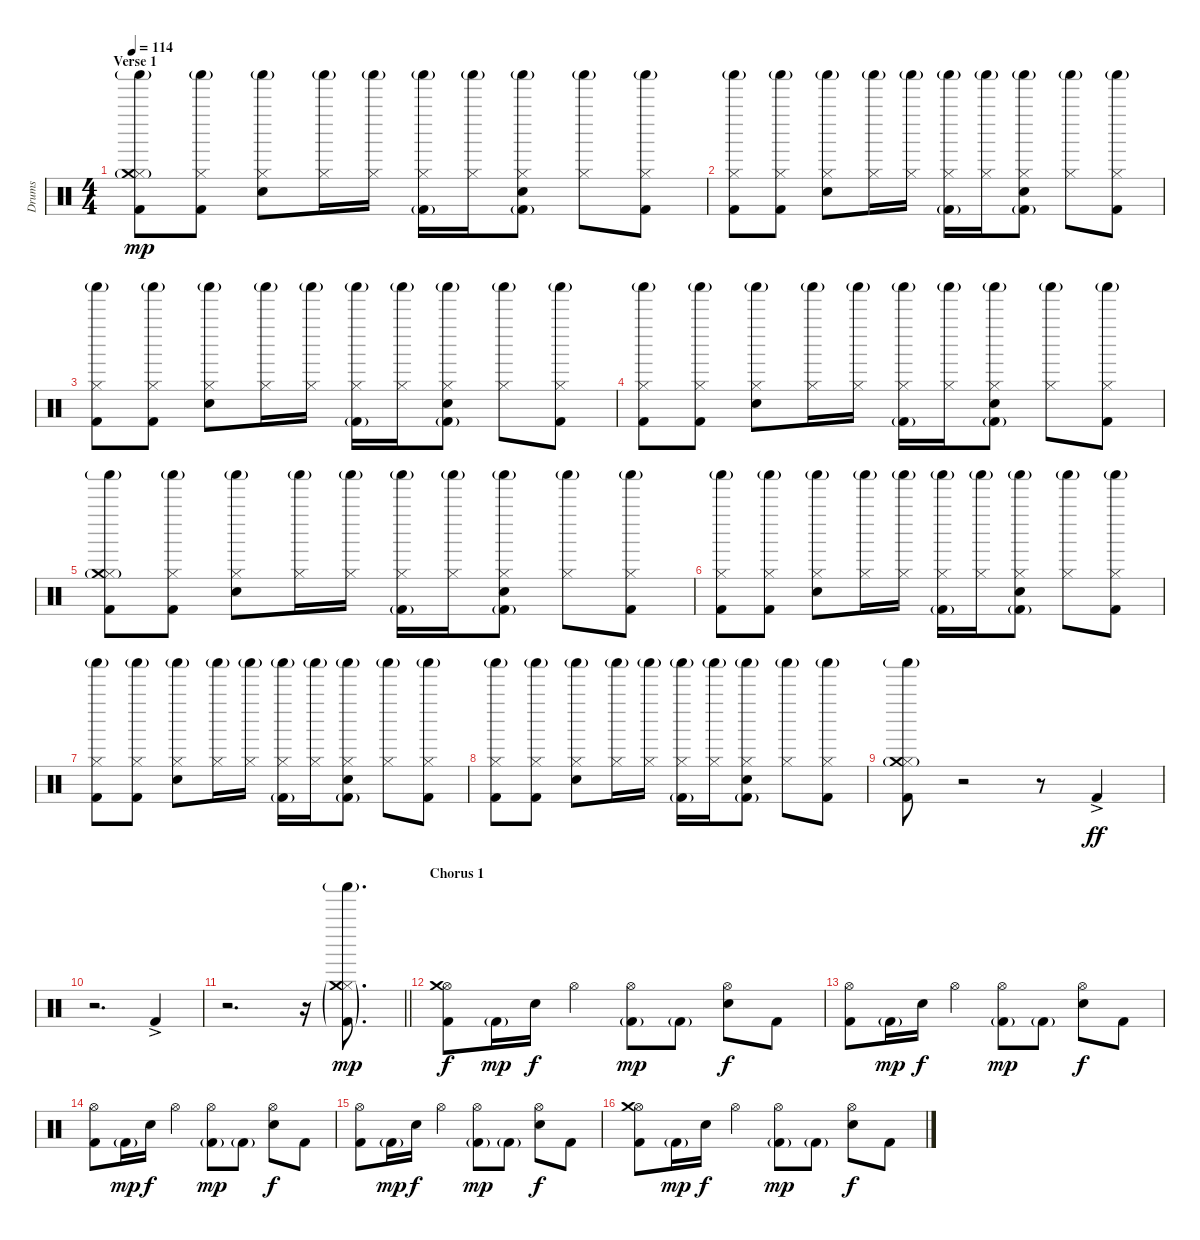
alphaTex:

\track ("Drums" "Drums") {instrument percussion}
\staff {score}
\articulation defaults
\ts (4 4)
\section ("" "Verse 1")
\tempo 114
\clef neutral
\ks c
("Hi-Hat (closed)" "Shaker (hit)"{g} "Crash medium (hit)"{g} "Kick (hit) 2").8{dy mp} ("Hi-Hat (closed)" "Shaker (hit)"{g} "Kick (hit) 2").8 ("Hi-Hat (closed)" "Shaker (hit)"{g} "Electric Snare (hit)").8 ("Hi-Hat (closed)" "Shaker (hit)"{g}).16 ("Hi-Hat (closed)" "Shaker (hit)"{g}).16 ("Hi-Hat (closed)" "Shaker (hit)"{g} "Kick (hit) 2"{g}).16 ("Hi-Hat (closed)" "Shaker (hit)"{g}).16 ("Hi-Hat (closed)" "Shaker (hit)"{g} "Electric Snare (hit)" "Kick (hit) 2"{g}).8 ("Hi-Hat (closed)" "Shaker (hit)"{g}).8 ("Hi-Hat (closed)" "Shaker (hit)"{g} "Kick (hit) 2").8 |
("Hi-Hat (closed)" "Shaker (hit)"{g} "Kick (hit) 2").8 ("Hi-Hat (closed)" "Shaker (hit)"{g} "Kick (hit) 2").8 ("Hi-Hat (closed)" "Shaker (hit)"{g} "Electric Snare (hit)").8 ("Hi-Hat (closed)" "Shaker (hit)"{g}).16 ("Hi-Hat (closed)" "Shaker (hit)"{g}).16 ("Hi-Hat (closed)" "Shaker (hit)"{g} "Kick (hit) 2"{g}).16 ("Hi-Hat (closed)" "Shaker (hit)"{g}).16 ("Hi-Hat (closed)" "Shaker (hit)"{g} "Electric Snare (hit)" "Kick (hit) 2"{g}).8 ("Hi-Hat (closed)" "Shaker (hit)"{g}).8 ("Hi-Hat (closed)" "Shaker (hit)"{g} "Kick (hit) 2").8 |
("Hi-Hat (closed)" "Shaker (hit)"{g} "Kick (hit) 2").8 ("Hi-Hat (closed)" "Shaker (hit)"{g} "Kick (hit) 2").8 ("Hi-Hat (closed)" "Shaker (hit)"{g} "Electric Snare (hit)").8 ("Hi-Hat (closed)" "Shaker (hit)"{g}).16 ("Hi-Hat (closed)" "Shaker (hit)"{g}).16 ("Hi-Hat (closed)" "Shaker (hit)"{g} "Kick (hit) 2"{g}).16 ("Hi-Hat (closed)" "Shaker (hit)"{g}).16 ("Hi-Hat (closed)" "Shaker (hit)"{g} "Electric Snare (hit)" "Kick (hit) 2"{g}).8 ("Hi-Hat (closed)" "Shaker (hit)"{g}).8 ("Hi-Hat (closed)" "Shaker (hit)"{g} "Kick (hit) 2").8 |
("Hi-Hat (closed)" "Shaker (hit)"{g} "Kick (hit) 2").8 ("Hi-Hat (closed)" "Shaker (hit)"{g} "Kick (hit) 2").8 ("Hi-Hat (closed)" "Shaker (hit)"{g} "Electric Snare (hit)").8 ("Hi-Hat (closed)" "Shaker (hit)"{g}).16 ("Hi-Hat (closed)" "Shaker (hit)"{g}).16 ("Hi-Hat (closed)" "Shaker (hit)"{g} "Kick (hit) 2"{g}).16 ("Hi-Hat (closed)" "Shaker (hit)"{g}).16 ("Hi-Hat (closed)" "Shaker (hit)"{g} "Electric Snare (hit)" "Kick (hit) 2"{g}).8 ("Hi-Hat (closed)" "Shaker (hit)"{g}).8 ("Hi-Hat (closed)" "Shaker (hit)"{g} "Kick (hit) 2").8 |
("Hi-Hat (closed)" "Shaker (hit)"{g} "Crash medium (hit)"{g} "Kick (hit) 2").8 ("Hi-Hat (closed)" "Shaker (hit)"{g} "Kick (hit) 2").8 ("Hi-Hat (closed)" "Shaker (hit)"{g} "Electric Snare (hit)").8 ("Hi-Hat (closed)" "Shaker (hit)"{g}).16 ("Hi-Hat (closed)" "Shaker (hit)"{g}).16 ("Hi-Hat (closed)" "Shaker (hit)"{g} "Kick (hit) 2"{g}).16 ("Hi-Hat (closed)" "Shaker (hit)"{g}).16 ("Hi-Hat (closed)" "Shaker (hit)"{g} "Electric Snare (hit)" "Kick (hit) 2"{g}).8 ("Hi-Hat (closed)" "Shaker (hit)"{g}).8 ("Hi-Hat (closed)" "Shaker (hit)"{g} "Kick (hit) 2").8 |
("Hi-Hat (closed)" "Shaker (hit)"{g} "Kick (hit) 2").8 ("Hi-Hat (closed)" "Shaker (hit)"{g} "Kick (hit) 2").8 ("Hi-Hat (closed)" "Shaker (hit)"{g} "Electric Snare (hit)").8 ("Hi-Hat (closed)" "Shaker (hit)"{g}).16 ("Hi-Hat (closed)" "Shaker (hit)"{g}).16 ("Hi-Hat (closed)" "Shaker (hit)"{g} "Kick (hit) 2"{g}).16 ("Hi-Hat (closed)" "Shaker (hit)"{g}).16 ("Hi-Hat (closed)" "Shaker (hit)"{g} "Electric Snare (hit)" "Kick (hit) 2"{g}).8 ("Hi-Hat (closed)" "Shaker (hit)"{g}).8 ("Hi-Hat (closed)" "Shaker (hit)"{g} "Kick (hit) 2").8 |
("Hi-Hat (closed)" "Shaker (hit)"{g} "Kick (hit) 2").8 ("Hi-Hat (closed)" "Shaker (hit)"{g} "Kick (hit) 2").8 ("Hi-Hat (closed)" "Shaker (hit)"{g} "Electric Snare (hit)").8 ("Hi-Hat (closed)" "Shaker (hit)"{g}).16 ("Hi-Hat (closed)" "Shaker (hit)"{g}).16 ("Hi-Hat (closed)" "Shaker (hit)"{g} "Kick (hit) 2"{g}).16 ("Hi-Hat (closed)" "Shaker (hit)"{g}).16 ("Hi-Hat (closed)" "Shaker (hit)"{g} "Electric Snare (hit)" "Kick (hit) 2"{g}).8 ("Hi-Hat (closed)" "Shaker (hit)"{g}).8 ("Hi-Hat (closed)" "Shaker (hit)"{g} "Kick (hit) 2").8 |
("Hi-Hat (closed)" "Shaker (hit)"{g} "Kick (hit) 2").8 ("Hi-Hat (closed)" "Shaker (hit)"{g} "Kick (hit) 2").8 ("Hi-Hat (closed)" "Shaker (hit)"{g} "Electric Snare (hit)").8 ("Hi-Hat (closed)" "Shaker (hit)"{g}).16 ("Hi-Hat (closed)" "Shaker (hit)"{g}).16 ("Hi-Hat (closed)" "Shaker (hit)"{g} "Kick (hit) 2"{g}).16 ("Hi-Hat (closed)" "Shaker (hit)"{g}).16 ("Hi-Hat (closed)" "Shaker (hit)"{g} "Electric Snare (hit)" "Kick (hit) 2"{g}).8 ("Hi-Hat (closed)" "Shaker (hit)"{g}).8 ("Hi-Hat (closed)" "Shaker (hit)"{g} "Kick (hit) 2").8 |
("Hi-Hat (closed)" "Shaker (hit)"{g} "Crash medium (hit)"{g} "Kick (hit) 2").8 r.2 r.8 "Kick (hit) 2"{ac}.4{dy ff} |
r.2{d} "Kick (hit) 2"{ac}.4 |
\barLineRight lightlight
r.2{d} r.16 ("Hi-Hat (closed)" "Shaker (hit)"{g} "Crash medium (hit)"{g} "Kick (hit) 2"{g}).8{d dy mp} |
\section ("" "Chorus 1")
("Hi-Hat (open)" "Crash medium (hit)" "Kick (hit) 2").8{dy f} "Kick (hit) 2"{g}.16{dy mp} "Electric Snare (hit)".16{dy f} "Hi-Hat (open)".4 ("Hi-Hat (open)" "Kick (hit) 2"{g}).8{dy mp} "Kick (hit) 2"{g}.8 ("Hi-Hat (open)" "Electric Snare (hit)").8{dy f} "Kick (hit) 2".8 |
("Hi-Hat (open)" "Kick (hit) 2").8 "Kick (hit) 2"{g}.16{dy mp} "Electric Snare (hit)".16{dy f} "Hi-Hat (open)".4 ("Hi-Hat (open)" "Kick (hit) 2"{g}).8{dy mp} "Kick (hit) 2"{g}.8 ("Hi-Hat (open)" "Electric Snare (hit)").8{dy f} "Kick (hit) 2".8 |
("Hi-Hat (open)" "Kick (hit) 2").8 "Kick (hit) 2"{g}.16{dy mp} "Electric Snare (hit)".16{dy f} "Hi-Hat (open)".4 ("Hi-Hat (open)" "Kick (hit) 2"{g}).8{dy mp} "Kick (hit) 2"{g}.8 ("Hi-Hat (open)" "Electric Snare (hit)").8{dy f} "Kick (hit) 2".8 |
("Hi-Hat (open)" "Kick (hit) 2").8 "Kick (hit) 2"{g}.16{dy mp} "Electric Snare (hit)".16{dy f} "Hi-Hat (open)".4 ("Hi-Hat (open)" "Kick (hit) 2"{g}).8{dy mp} "Kick (hit) 2"{g}.8 ("Hi-Hat (open)" "Electric Snare (hit)").8{dy f} "Kick (hit) 2".8 |
("Hi-Hat (open)" "Crash medium (hit)" "Kick (hit) 2").8 "Kick (hit) 2"{g}.16{dy mp} "Electric Snare (hit)".16{dy f} "Hi-Hat (open)".4 ("Hi-Hat (open)" "Kick (hit) 2"{g}).8{dy mp} "Kick (hit) 2"{g}.8 ("Hi-Hat (open)" "Electric Snare (hit)").8{dy f} "Kick (hit) 2".8
